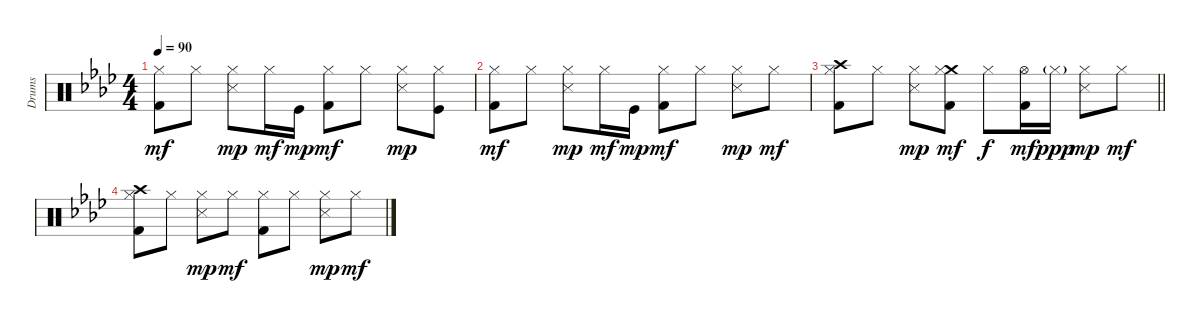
\track ("Drums" "Drums") {instrument percussion}
\staff {score}
\articulation defaults
\ts (4 4)
\tempo 90
\clef neutral
\ks ab
("Hi-Hat (closed)" "Kick (hit) 2").8{dy mf} "Hi-Hat (closed)".8 ("Hi-Hat (closed)" "Snare (side stick) 3").8{dy mp} "Hi-Hat (closed)".16{dy mf} "Kick (hit)".16{dy mp} ("Hi-Hat (closed)" "Kick (hit) 2").8{dy mf} "Hi-Hat (closed)".8 ("Hi-Hat (closed)" "Snare (side stick) 3").8{dy mp} ("Hi-Hat (closed)" "Kick (hit)").8 |
("Hi-Hat (closed)" "Kick (hit) 2").8{dy mf} "Hi-Hat (closed)".8 ("Hi-Hat (closed)" "Snare (side stick) 3").8{dy mp} "Hi-Hat (closed)".16{dy mf} "Kick (hit)".16{dy mp} ("Hi-Hat (closed)" "Kick (hit) 2").8{dy mf} "Hi-Hat (closed)".8 ("Hi-Hat (closed)" "Snare (side stick) 3").8{dy mp} "Hi-Hat (closed)".8{dy mf} |
\barLineRight lightlight
("Crash high (hit)" "Hi-Hat (closed)" "Kick (hit) 2").8 "Hi-Hat (closed)".8 ("Hi-Hat (closed)" "Snare (side stick) 3").8{dy mp} ("Crash medium (hit)" "Hi-Hat (closed)" "Kick (hit) 2").8{dy mf} "Hi-Hat (closed)".8{dy f} ("Hi-Hat (open)" "Kick (hit) 2").16{dy mf} "Hi-Hat (closed)"{g}.16{dy ppp} ("Hi-Hat (closed)" "Snare (side stick) 3").8{dy mp} "Hi-Hat (closed)".8{dy mf} |
("Crash high (hit)" "Hi-Hat (closed)" "Kick (hit) 2").8 "Hi-Hat (closed)".8 ("Hi-Hat (closed)" "Snare (side stick) 3").8{dy mp} "Hi-Hat (closed)".8{dy mf} ("Hi-Hat (closed)" "Kick (hit) 2").8 "Hi-Hat (closed)".8 ("Hi-Hat (closed)" "Snare (side stick) 3").8{dy mp} "Hi-Hat (closed)".8{dy mf}
